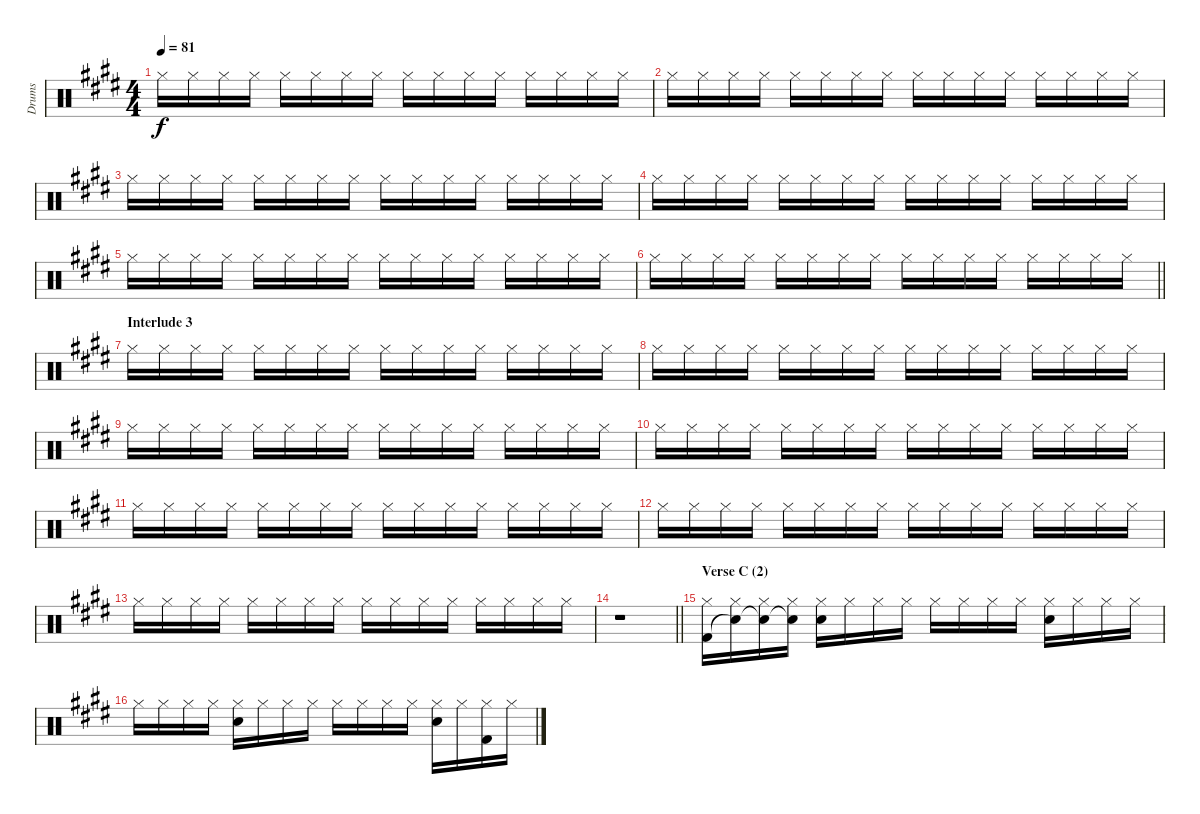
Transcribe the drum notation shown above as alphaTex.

\track ("Drums" "Drums") {instrument percussion}
\staff {score}
\articulation defaults
\ts (4 4)
\tempo 81
\clef neutral
\ks c#minor "Hi-Hat (closed)".16{dy f} "Hi-Hat (closed)".16 "Hi-Hat (closed)".16 "Hi-Hat (closed)".16 "Hi-Hat (closed)".16 "Hi-Hat (closed)".16 "Hi-Hat (closed)".16 "Hi-Hat (closed)".16 "Hi-Hat (closed)".16 "Hi-Hat (closed)".16 "Hi-Hat (closed)".16 "Hi-Hat (closed)".16 "Hi-Hat (closed)".16 "Hi-Hat (closed)".16 "Hi-Hat (closed)".16 "Hi-Hat (closed)".16
|
"Hi-Hat (closed)".16 "Hi-Hat (closed)".16 "Hi-Hat (closed)".16 "Hi-Hat (closed)".16 "Hi-Hat (closed)".16 "Hi-Hat (closed)".16 "Hi-Hat (closed)".16 "Hi-Hat (closed)".16 "Hi-Hat (closed)".16 "Hi-Hat (closed)".16 "Hi-Hat (closed)".16 "Hi-Hat (closed)".16 "Hi-Hat (closed)".16 "Hi-Hat (closed)".16 "Hi-Hat (closed)".16 "Hi-Hat (closed)".16 |
"Hi-Hat (closed)".16 "Hi-Hat (closed)".16 "Hi-Hat (closed)".16 "Hi-Hat (closed)".16 "Hi-Hat (closed)".16 "Hi-Hat (closed)".16 "Hi-Hat (closed)".16 "Hi-Hat (closed)".16 "Hi-Hat (closed)".16 "Hi-Hat (closed)".16 "Hi-Hat (closed)".16 "Hi-Hat (closed)".16 "Hi-Hat (closed)".16 "Hi-Hat (closed)".16 "Hi-Hat (closed)".16 "Hi-Hat (closed)".16 |
"Hi-Hat (closed)".16 "Hi-Hat (closed)".16 "Hi-Hat (closed)".16 "Hi-Hat (closed)".16 "Hi-Hat (closed)".16 "Hi-Hat (closed)".16 "Hi-Hat (closed)".16 "Hi-Hat (closed)".16 "Hi-Hat (closed)".16 "Hi-Hat (closed)".16 "Hi-Hat (closed)".16 "Hi-Hat (closed)".16 "Hi-Hat (closed)".16 "Hi-Hat (closed)".16 "Hi-Hat (closed)".16 "Hi-Hat (closed)".16 |
"Hi-Hat (closed)".16 "Hi-Hat (closed)".16 "Hi-Hat (closed)".16 "Hi-Hat (closed)".16 "Hi-Hat (closed)".16 "Hi-Hat (closed)".16 "Hi-Hat (closed)".16 "Hi-Hat (closed)".16 "Hi-Hat (closed)".16 "Hi-Hat (closed)".16 "Hi-Hat (closed)".16 "Hi-Hat (closed)".16 "Hi-Hat (closed)".16 "Hi-Hat (closed)".16 "Hi-Hat (closed)".16 "Hi-Hat (closed)".16 |
\barLineRight lightlight "Hi-Hat (closed)".16 "Hi-Hat (closed)".16 "Hi-Hat (closed)".16 "Hi-Hat (closed)".16 "Hi-Hat (closed)".16 "Hi-Hat (closed)".16 "Hi-Hat (closed)".16 "Hi-Hat (closed)".16 "Hi-Hat (closed)".16 "Hi-Hat (closed)".16 "Hi-Hat (closed)".16 "Hi-Hat (closed)".16 "Hi-Hat (closed)".16 "Hi-Hat (closed)".16 "Hi-Hat (closed)".16 "Hi-Hat (closed)".16
|
\section ("" "Interlude 3")
"Hi-Hat (closed)".16 "Hi-Hat (closed)".16 "Hi-Hat (closed)".16 "Hi-Hat (closed)".16 "Hi-Hat (closed)".16 "Hi-Hat (closed)".16 "Hi-Hat (closed)".16 "Hi-Hat (closed)".16 "Hi-Hat (closed)".16 "Hi-Hat (closed)".16 "Hi-Hat (closed)".16 "Hi-Hat (closed)".16 "Hi-Hat (closed)".16 "Hi-Hat (closed)".16 "Hi-Hat (closed)".16 "Hi-Hat (closed)".16 |
"Hi-Hat (closed)".16 "Hi-Hat (closed)".16 "Hi-Hat (closed)".16 "Hi-Hat (closed)".16 "Hi-Hat (closed)".16 "Hi-Hat (closed)".16 "Hi-Hat (closed)".16 "Hi-Hat (closed)".16 "Hi-Hat (closed)".16 "Hi-Hat (closed)".16 "Hi-Hat (closed)".16 "Hi-Hat (closed)".16 "Hi-Hat (closed)".16 "Hi-Hat (closed)".16 "Hi-Hat (closed)".16 "Hi-Hat (closed)".16 |
"Hi-Hat (closed)".16 "Hi-Hat (closed)".16 "Hi-Hat (closed)".16 "Hi-Hat (closed)".16 "Hi-Hat (closed)".16 "Hi-Hat (closed)".16 "Hi-Hat (closed)".16 "Hi-Hat (closed)".16 "Hi-Hat (closed)".16 "Hi-Hat (closed)".16 "Hi-Hat (closed)".16 "Hi-Hat (closed)".16 "Hi-Hat (closed)".16 "Hi-Hat (closed)".16 "Hi-Hat (closed)".16 "Hi-Hat (closed)".16 |
"Hi-Hat (closed)".16 "Hi-Hat (closed)".16 "Hi-Hat (closed)".16 "Hi-Hat (closed)".16 "Hi-Hat (closed)".16 "Hi-Hat (closed)".16 "Hi-Hat (closed)".16 "Hi-Hat (closed)".16 "Hi-Hat (closed)".16 "Hi-Hat (closed)".16 "Hi-Hat (closed)".16 "Hi-Hat (closed)".16 "Hi-Hat (closed)".16 "Hi-Hat (closed)".16 "Hi-Hat (closed)".16 "Hi-Hat (closed)".16 |
"Hi-Hat (closed)".16 "Hi-Hat (closed)".16 "Hi-Hat (closed)".16 "Hi-Hat (closed)".16 "Hi-Hat (closed)".16 "Hi-Hat (closed)".16 "Hi-Hat (closed)".16 "Hi-Hat (closed)".16 "Hi-Hat (closed)".16 "Hi-Hat (closed)".16 "Hi-Hat (closed)".16 "Hi-Hat (closed)".16 "Hi-Hat (closed)".16 "Hi-Hat (closed)".16 "Hi-Hat (closed)".16 "Hi-Hat (closed)".16 |
"Hi-Hat (closed)".16 "Hi-Hat (closed)".16 "Hi-Hat (closed)".16 "Hi-Hat (closed)".16 "Hi-Hat (closed)".16 "Hi-Hat (closed)".16 "Hi-Hat (closed)".16 "Hi-Hat (closed)".16 "Hi-Hat (closed)".16 "Hi-Hat (closed)".16 "Hi-Hat (closed)".16 "Hi-Hat (closed)".16 "Hi-Hat (closed)".16 "Hi-Hat (closed)".16 "Hi-Hat (closed)".16 "Hi-Hat (closed)".16 |
"Hi-Hat (closed)".16 "Hi-Hat (closed)".16 "Hi-Hat (closed)".16 "Hi-Hat (closed)".16 "Hi-Hat (closed)".16 "Hi-Hat (closed)".16 "Hi-Hat (closed)".16 "Hi-Hat (closed)".16 "Hi-Hat (closed)".16 "Hi-Hat (closed)".16 "Hi-Hat (closed)".16 "Hi-Hat (closed)".16 "Hi-Hat (closed)".16 "Hi-Hat (closed)".16 "Hi-Hat (closed)".16 "Hi-Hat (closed)".16 |
\barLineRight lightlight
r.1 |
\section ("" "Verse C (2)")
("Hi-Hat (closed)" "Kick (hit) 2").16 ("Hi-Hat (closed)" "Snare (hit)"{t}).16 ("Hi-Hat (closed)" "Snare (hit)"{t}).16 ("Hi-Hat (closed)" "Snare (hit)"{t}).16 ("Hi-Hat (closed)" "Electric Snare (hit)").16 "Hi-Hat (closed)".16 "Hi-Hat (closed)".16 "Hi-Hat (closed)".16 "Hi-Hat (closed)".16 "Hi-Hat (closed)".16 "Hi-Hat (closed)".16 "Hi-Hat (closed)".16 ("Hi-Hat (closed)" "Electric Snare (hit)").16 "Hi-Hat (closed)".16 "Hi-Hat (closed)".16 "Hi-Hat (closed)".16 |
"Hi-Hat (closed)".16 "Hi-Hat (closed)".16 "Hi-Hat (closed)".16 "Hi-Hat (closed)".16 ("Hi-Hat (closed)" "Electric Snare (hit)").16 "Hi-Hat (closed)".16 "Hi-Hat (closed)".16 "Hi-Hat (closed)".16 "Hi-Hat (closed)".16 "Hi-Hat (closed)".16 "Hi-Hat (closed)".16 "Hi-Hat (closed)".16 ("Hi-Hat (closed)" "Electric Snare (hit)").16 "Hi-Hat (closed)".16 ("Hi-Hat (closed)" "Kick (hit) 2").16 "Hi-Hat (closed)".16
